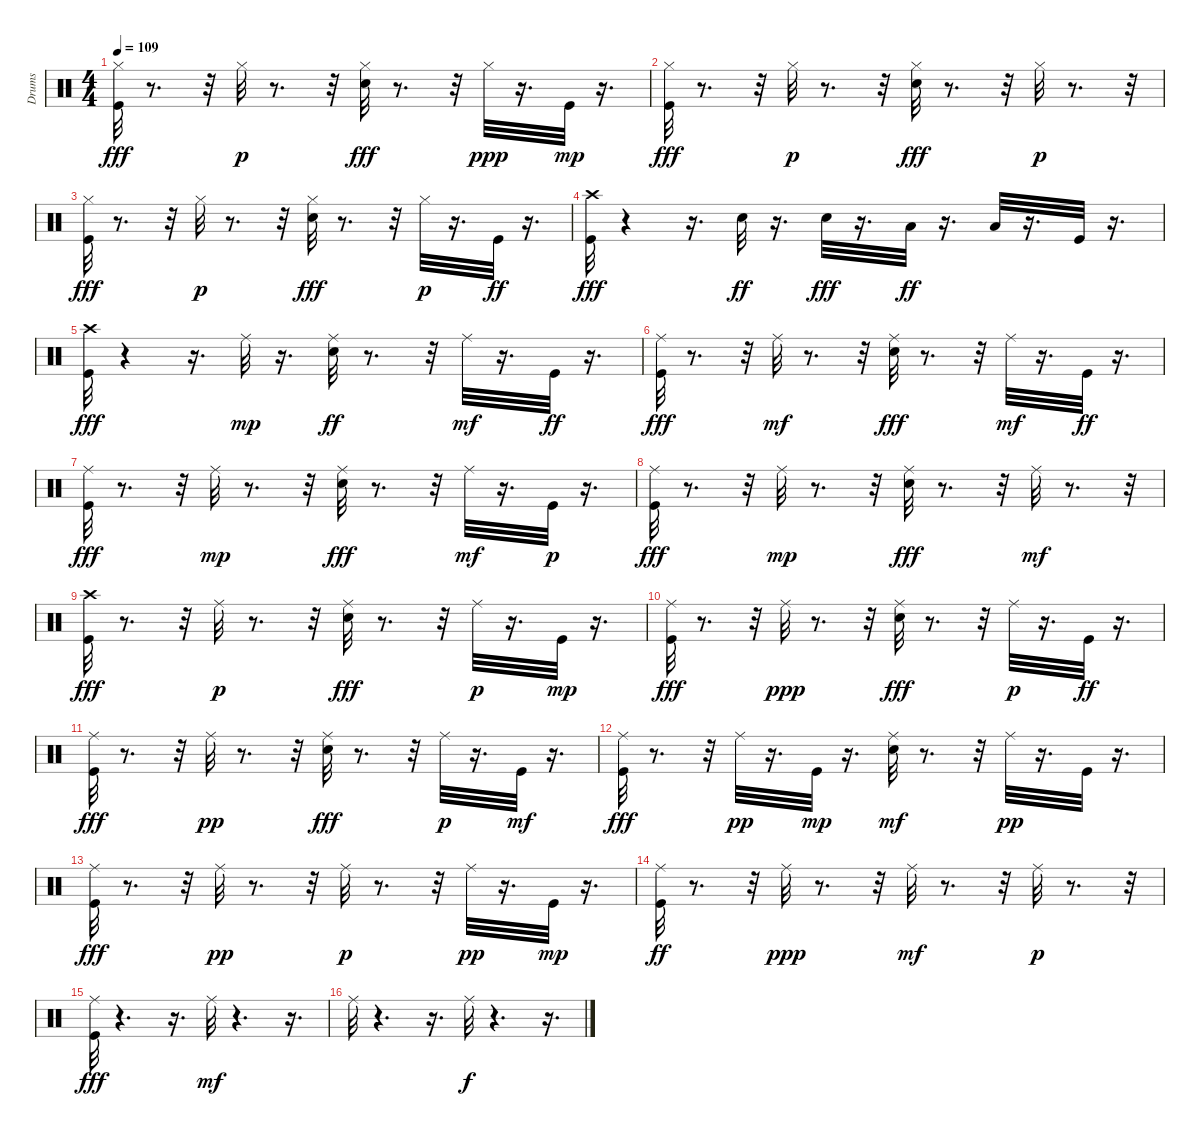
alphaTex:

\track ("Drums" "Drums") {instrument percussion}
\staff {score}
\articulation defaults
\ts (4 4)
\tempo 109
\clef neutral
\ks c
("Hi-Hat (closed)" "Kick (hit)").32{dy fff} r.8{d} r.32 "Hi-Hat (closed)".32{dy p} r.8{d} r.32 ("Hi-Hat (closed)" "Snare (hit) 2").32{dy fff} r.8{d} r.32 "Hi-Hat (closed)".32{dy ppp} r.16{d} "Kick (hit)".32{dy mp} r.16{d} |
("Hi-Hat (closed)" "Kick (hit)").32{dy fff} r.8{d} r.32 "Hi-Hat (closed)".32{dy p} r.8{d} r.32 ("Hi-Hat (closed)" "Snare (hit) 2").32{dy fff} r.8{d} r.32 "Hi-Hat (closed)".32{dy p} r.8{d} r.32 |
("Hi-Hat (closed)" "Kick (hit)").32{dy fff} r.8{d} r.32 "Hi-Hat (closed)".32{dy p} r.8{d} r.32 ("Hi-Hat (closed)" "Snare (hit) 2").32{dy fff} r.8{d} r.32 "Hi-Hat (closed)".32{dy p} r.16{d} "Kick (hit)".32{dy ff} r.16{d} |
("Crash high (hit)" "Kick (hit)").32{dy fff} r.4 r.16{d} "Snare (hit) 2".32{dy ff} r.16{d} "Snare (hit) 2".32{dy fff} r.16{d} "Low Tom (hit)".32{dy ff} r.16{d} "Low Floor Tom (hit)".32 r.16{d} "Kick (hit)".32 r.16{d} |
("Crash high (hit)" "Kick (hit)").32{dy fff} r.4 r.16{d} "Ride (middle)".32{dy mp} r.16{d} ("Ride (middle)" "Snare (hit) 2").32{dy ff} r.8{d} r.32 "Ride (middle)".32{dy mf} r.16{d} "Kick (hit)".32{dy ff} r.16{d} |
("Ride (middle)" "Kick (hit)").32{dy fff} r.8{d} r.32 "Ride (middle)".32{dy mf} r.8{d} r.32 ("Ride (middle)" "Snare (hit) 2").32{dy fff} r.8{d} r.32 "Ride (middle)".32{dy mf} r.16{d} "Kick (hit)".32{dy ff} r.16{d} |
("Ride (middle)" "Kick (hit)").32{dy fff} r.8{d} r.32 "Ride (middle)".32{dy mp} r.8{d} r.32 ("Ride (middle)" "Snare (hit) 2").32{dy fff} r.8{d} r.32 "Ride (middle)".32{dy mf} r.16{d} "Kick (hit)".32{dy p} r.16{d} |
("Ride (middle)" "Kick (hit)").32{dy fff} r.8{d} r.32 "Ride (middle)".32{dy mp} r.8{d} r.32 ("Ride (middle)" "Snare (hit) 2").32{dy fff} r.8{d} r.32 "Ride (middle)".32{dy mf} r.8{d} r.32 |
("Crash high (hit)" "Kick (hit)").32{dy fff} r.8{d} r.32 "Ride (middle)".32{dy p} r.8{d} r.32 ("Ride (middle)" "Snare (hit) 2").32{dy fff} r.8{d} r.32 "Ride (middle)".32{dy p} r.16{d} "Kick (hit)".32{dy mp} r.16{d} |
("Ride (middle)" "Kick (hit)").32{dy fff} r.8{d} r.32 "Ride (middle)".32{dy ppp} r.8{d} r.32 ("Ride (middle)" "Snare (hit) 2").32{dy fff} r.8{d} r.32 "Ride (middle)".32{dy p} r.16{d} "Kick (hit)".32{dy ff} r.16{d} |
("Ride (middle)" "Kick (hit)").32{dy fff} r.8{d} r.32 "Ride (middle)".32{dy pp} r.8{d} r.32 ("Ride (middle)" "Snare (hit) 2").32{dy fff} r.8{d} r.32 "Ride (middle)".32{dy p} r.16{d} "Kick (hit)".32{dy mf} r.16{d} |
("Ride (middle)" "Kick (hit)").32{dy fff} r.8{d} r.32 "Ride (middle)".32{dy pp} r.16{d} "Kick (hit)".32{dy mp} r.16{d} ("Ride (middle)" "Snare (hit) 2").32{dy mf} r.8{d} r.32 "Ride (middle)".32{dy pp} r.16{d} "Kick (hit)".32 r.16{d} |
("Ride (middle)" "Kick (hit)").32{dy fff} r.8{d} r.32 "Ride (middle)".32{dy pp} r.8{d} r.32 "Ride (middle)".32{dy p} r.8{d} r.32 "Ride (middle)".32{dy pp} r.16{d} "Kick (hit)".32{dy mp} r.16{d} |
("Ride (middle)" "Kick (hit)").32{dy ff} r.8{d} r.32 "Ride (middle)".32{dy ppp} r.8{d} r.32 "Ride (middle)".32{dy mf} r.8{d} r.32 "Ride (middle)".32{dy p} r.8{d} r.32 |
("Ride (middle)" "Kick (hit)").32{dy fff} r.4{d} r.16{d} "Ride (middle)".32{dy mf} r.4{d} r.16{d} |
"Ride (middle)".32 r.4{d} r.16{d} "Ride (middle)".32{dy f} r.4{d} r.16{d}
